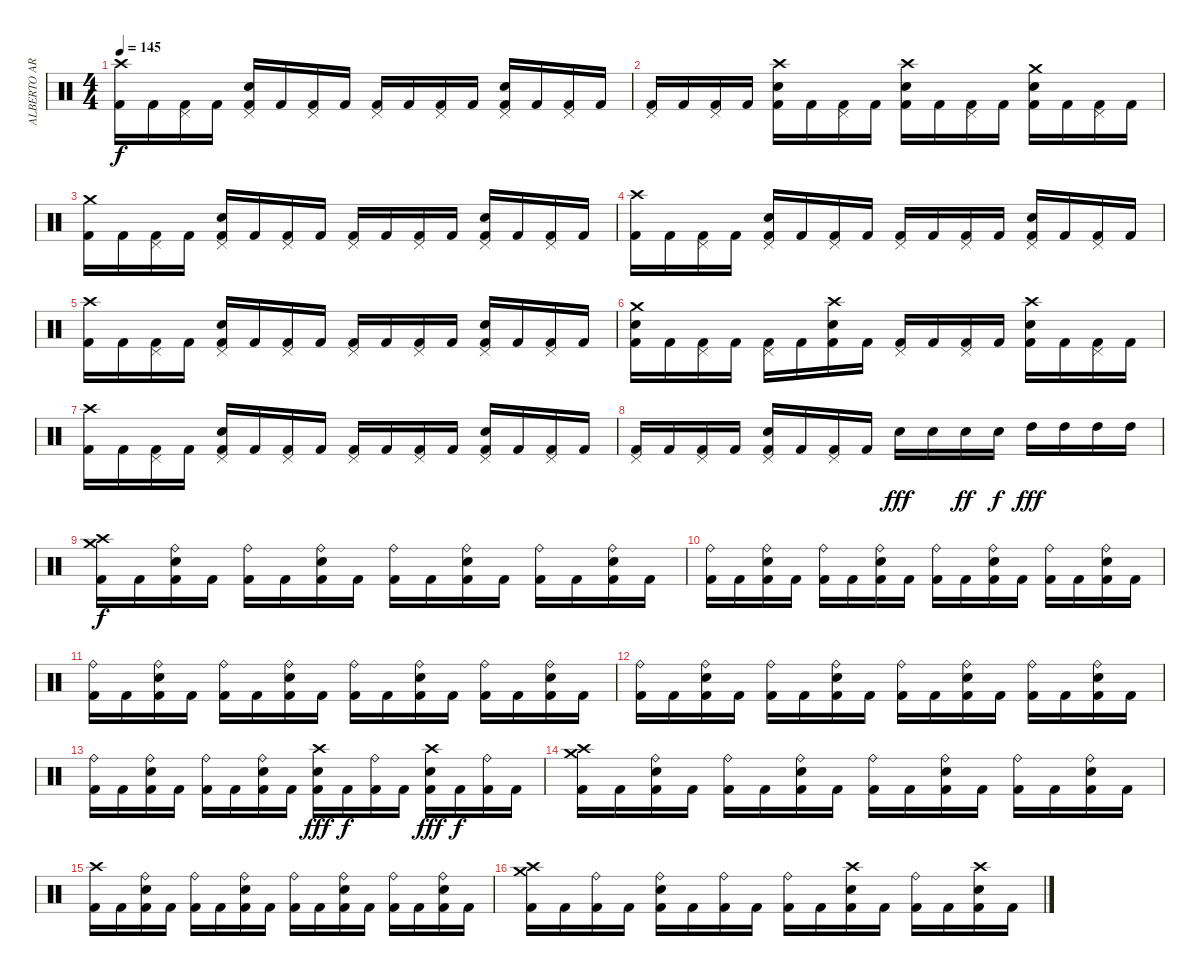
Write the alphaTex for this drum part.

\track ("ALBERTO ARDINES" "ALBERTO AR") {instrument percussion}
\staff {score}
\articulation defaults
\ts (4 4)
\tempo 145
\clef neutral
\ks c
("Crash high (hit)" "Kick (hit) 2").16{dy f} "Kick (hit) 2".16 ("Pedal Hi-Hat (hit)" "Kick (hit) 2").16 "Kick (hit) 2".16 ("Pedal Hi-Hat (hit)" "Electric Snare (hit)" "Kick (hit) 2").16 "Kick (hit) 2".16 ("Pedal Hi-Hat (hit)" "Kick (hit) 2").16 "Kick (hit) 2".16 ("Pedal Hi-Hat (hit)" "Kick (hit) 2").16 "Kick (hit) 2".16 ("Pedal Hi-Hat (hit)" "Kick (hit) 2").16 "Kick (hit) 2".16 ("Pedal Hi-Hat (hit)" "Electric Snare (hit)" "Kick (hit) 2").16 "Kick (hit) 2".16 ("Pedal Hi-Hat (hit)" "Kick (hit) 2").16 "Kick (hit) 2".16 |
("Pedal Hi-Hat (hit)" "Kick (hit) 2").16 "Kick (hit) 2".16 ("Pedal Hi-Hat (hit)" "Kick (hit) 2").16 "Kick (hit) 2".16 ("Crash high (hit)" "Electric Snare (hit)" "Kick (hit) 2").16 "Kick (hit) 2".16 ("Pedal Hi-Hat (hit)" "Kick (hit) 2").16 "Kick (hit) 2".16 ("Crash high (hit)" "Electric Snare (hit)" "Kick (hit) 2").16 "Kick (hit) 2".16 ("Pedal Hi-Hat (hit)" "Kick (hit) 2").16 "Kick (hit) 2".16 ("Crash medium (hit)" "Electric Snare (hit)" "Kick (hit) 2").16 "Kick (hit) 2".16 ("Pedal Hi-Hat (hit)" "Kick (hit) 2").16 "Kick (hit) 2".16 |
("Crash medium (hit)" "Kick (hit) 2").16 "Kick (hit) 2".16 ("Pedal Hi-Hat (hit)" "Kick (hit) 2").16 "Kick (hit) 2".16 ("Pedal Hi-Hat (hit)" "Electric Snare (hit)" "Kick (hit) 2").16 "Kick (hit) 2".16 ("Pedal Hi-Hat (hit)" "Kick (hit) 2").16 "Kick (hit) 2".16 ("Pedal Hi-Hat (hit)" "Kick (hit) 2").16 "Kick (hit) 2".16 ("Pedal Hi-Hat (hit)" "Kick (hit) 2").16 "Kick (hit) 2".16 ("Pedal Hi-Hat (hit)" "Electric Snare (hit)" "Kick (hit) 2").16 "Kick (hit) 2".16 ("Pedal Hi-Hat (hit)" "Kick (hit) 2").16 "Kick (hit) 2".16 |
("Crash high (hit)" "Kick (hit) 2").16 "Kick (hit) 2".16 ("Pedal Hi-Hat (hit)" "Kick (hit) 2").16 "Kick (hit) 2".16 ("Pedal Hi-Hat (hit)" "Electric Snare (hit)" "Kick (hit) 2").16 "Kick (hit) 2".16 ("Pedal Hi-Hat (hit)" "Kick (hit) 2").16 "Kick (hit) 2".16 ("Pedal Hi-Hat (hit)" "Kick (hit) 2").16 "Kick (hit) 2".16 ("Pedal Hi-Hat (hit)" "Kick (hit) 2").16 "Kick (hit) 2".16 ("Pedal Hi-Hat (hit)" "Electric Snare (hit)" "Kick (hit) 2").16 "Kick (hit) 2".16 ("Pedal Hi-Hat (hit)" "Kick (hit) 2").16 "Kick (hit) 2".16 |
("Crash high (hit)" "Kick (hit) 2").16 "Kick (hit) 2".16 ("Pedal Hi-Hat (hit)" "Kick (hit) 2").16 "Kick (hit) 2".16 ("Pedal Hi-Hat (hit)" "Electric Snare (hit)" "Kick (hit) 2").16 "Kick (hit) 2".16 ("Pedal Hi-Hat (hit)" "Kick (hit) 2").16 "Kick (hit) 2".16 ("Pedal Hi-Hat (hit)" "Kick (hit) 2").16 "Kick (hit) 2".16 ("Pedal Hi-Hat (hit)" "Kick (hit) 2").16 "Kick (hit) 2".16 ("Pedal Hi-Hat (hit)" "Electric Snare (hit)" "Kick (hit) 2").16 "Kick (hit) 2".16 ("Pedal Hi-Hat (hit)" "Kick (hit) 2").16 "Kick (hit) 2".16 |
("Crash medium (hit)" "Electric Snare (hit)" "Kick (hit) 2").16 "Kick (hit) 2".16 ("Pedal Hi-Hat (hit)" "Kick (hit) 2").16 "Kick (hit) 2".16 ("Pedal Hi-Hat (hit)" "Kick (hit) 2").16 "Kick (hit) 2".16 ("Crash high (hit)" "Electric Snare (hit)" "Kick (hit) 2").16 "Kick (hit) 2".16 ("Pedal Hi-Hat (hit)" "Kick (hit) 2").16 "Kick (hit) 2".16 ("Pedal Hi-Hat (hit)" "Kick (hit) 2").16 "Kick (hit) 2".16 ("Crash high (hit)" "Electric Snare (hit)" "Kick (hit) 2").16 "Kick (hit) 2".16 ("Pedal Hi-Hat (hit)" "Kick (hit) 2").16 "Kick (hit) 2".16 |
("Crash high (hit)" "Kick (hit) 2").16 "Kick (hit) 2".16 ("Pedal Hi-Hat (hit)" "Kick (hit) 2").16 "Kick (hit) 2".16 ("Pedal Hi-Hat (hit)" "Electric Snare (hit)" "Kick (hit) 2").16 "Kick (hit) 2".16 ("Pedal Hi-Hat (hit)" "Kick (hit) 2").16 "Kick (hit) 2".16 ("Pedal Hi-Hat (hit)" "Kick (hit) 2").16 "Kick (hit) 2".16 ("Pedal Hi-Hat (hit)" "Kick (hit) 2").16 "Kick (hit) 2".16 ("Pedal Hi-Hat (hit)" "Electric Snare (hit)" "Kick (hit) 2").16 "Kick (hit) 2".16 ("Pedal Hi-Hat (hit)" "Kick (hit) 2").16 "Kick (hit) 2".16 |
("Pedal Hi-Hat (hit)" "Kick (hit) 2").16 "Kick (hit) 2".16 ("Pedal Hi-Hat (hit)" "Kick (hit) 2").16 "Kick (hit) 2".16 ("Pedal Hi-Hat (hit)" "Electric Snare (hit)" "Kick (hit) 2").16 "Kick (hit) 2".16 ("Pedal Hi-Hat (hit)" "Kick (hit) 2").16 "Kick (hit) 2".16 "Electric Snare (hit)".16{dy fff} "Electric Snare (hit)".16 "Electric Snare (hit)".16{dy ff} "Electric Snare (hit)".16{dy f} "High Tom (hit)".16{dy fff} "High Tom (hit)".16 "High Tom (hit)".16 "High Tom (hit)".16 |
("Crash high (hit)" "Crash medium (hit)" "Kick (hit) 2").16{dy f} "Kick (hit) 2".16 ("Ride (bell)" "Electric Snare (hit)" "Kick (hit) 2").16 "Kick (hit) 2".16 ("Ride (bell)" "Kick (hit) 2").16 "Kick (hit) 2".16 ("Ride (bell)" "Electric Snare (hit)" "Kick (hit) 2").16 "Kick (hit) 2".16 ("Ride (bell)" "Kick (hit) 2").16 "Kick (hit) 2".16 ("Ride (bell)" "Electric Snare (hit)" "Kick (hit) 2").16 "Kick (hit) 2".16 ("Ride (bell)" "Kick (hit) 2").16 "Kick (hit) 2".16 ("Ride (bell)" "Electric Snare (hit)" "Kick (hit) 2").16 "Kick (hit) 2".16 |
("Ride (bell)" "Kick (hit) 2").16 "Kick (hit) 2".16 ("Ride (bell)" "Electric Snare (hit)" "Kick (hit) 2").16 "Kick (hit) 2".16 ("Ride (bell)" "Kick (hit) 2").16 "Kick (hit) 2".16 ("Ride (bell)" "Electric Snare (hit)" "Kick (hit) 2").16 "Kick (hit) 2".16 ("Ride (bell)" "Kick (hit) 2").16 "Kick (hit) 2".16 ("Ride (bell)" "Electric Snare (hit)" "Kick (hit) 2").16 "Kick (hit) 2".16 ("Ride (bell)" "Kick (hit) 2").16 "Kick (hit) 2".16 ("Ride (bell)" "Electric Snare (hit)" "Kick (hit) 2").16 "Kick (hit) 2".16 |
("Ride (bell)" "Kick (hit) 2").16 "Kick (hit) 2".16 ("Ride (bell)" "Electric Snare (hit)" "Kick (hit) 2").16 "Kick (hit) 2".16 ("Ride (bell)" "Kick (hit) 2").16 "Kick (hit) 2".16 ("Ride (bell)" "Electric Snare (hit)" "Kick (hit) 2").16 "Kick (hit) 2".16 ("Ride (bell)" "Kick (hit) 2").16 "Kick (hit) 2".16 ("Ride (bell)" "Electric Snare (hit)" "Kick (hit) 2").16 "Kick (hit) 2".16 ("Ride (bell)" "Kick (hit) 2").16 "Kick (hit) 2".16 ("Ride (bell)" "Electric Snare (hit)" "Kick (hit) 2").16 "Kick (hit) 2".16 |
("Ride (bell)" "Kick (hit) 2").16 "Kick (hit) 2".16 ("Ride (bell)" "Electric Snare (hit)" "Kick (hit) 2").16 "Kick (hit) 2".16 ("Ride (bell)" "Kick (hit) 2").16 "Kick (hit) 2".16 ("Ride (bell)" "Electric Snare (hit)" "Kick (hit) 2").16 "Kick (hit) 2".16 ("Ride (bell)" "Kick (hit) 2").16 "Kick (hit) 2".16 ("Ride (bell)" "Electric Snare (hit)" "Kick (hit) 2").16 "Kick (hit) 2".16 ("Ride (bell)" "Kick (hit) 2").16 "Kick (hit) 2".16 ("Ride (bell)" "Electric Snare (hit)" "Kick (hit) 2").16 "Kick (hit) 2".16 |
("Ride (bell)" "Kick (hit) 2").16 "Kick (hit) 2".16 ("Ride (bell)" "Electric Snare (hit)" "Kick (hit) 2").16 "Kick (hit) 2".16 ("Ride (bell)" "Kick (hit) 2").16 "Kick (hit) 2".16 ("Ride (bell)" "Electric Snare (hit)" "Kick (hit) 2").16 "Kick (hit) 2".16 ("Crash high (hit)" "Electric Snare (hit)" "Kick (hit) 2").16{dy fff} "Kick (hit) 2".16{dy f} ("Ride (bell)" "Kick (hit) 2").16 "Kick (hit) 2".16 ("Crash high (hit)" "Electric Snare (hit)" "Kick (hit) 2").16{dy fff} "Kick (hit) 2".16{dy f} ("Ride (bell)" "Kick (hit) 2").16 "Kick (hit) 2".16 |
("Crash high (hit)" "Crash medium (hit)" "Kick (hit) 2").16 "Kick (hit) 2".16 ("Ride (bell)" "Electric Snare (hit)" "Kick (hit) 2").16 "Kick (hit) 2".16 ("Ride (bell)" "Kick (hit) 2").16 "Kick (hit) 2".16 ("Ride (bell)" "Electric Snare (hit)" "Kick (hit) 2").16 "Kick (hit) 2".16 ("Ride (bell)" "Kick (hit) 2").16 "Kick (hit) 2".16 ("Ride (bell)" "Electric Snare (hit)" "Kick (hit) 2").16 "Kick (hit) 2".16 ("Ride (bell)" "Kick (hit) 2").16 "Kick (hit) 2".16 ("Ride (bell)" "Electric Snare (hit)" "Kick (hit) 2").16 "Kick (hit) 2".16 |
("Crash high (hit)" "Kick (hit) 2").16 "Kick (hit) 2".16 ("Ride (bell)" "Electric Snare (hit)" "Kick (hit) 2").16 "Kick (hit) 2".16 ("Ride (bell)" "Kick (hit) 2").16 "Kick (hit) 2".16 ("Ride (bell)" "Electric Snare (hit)" "Kick (hit) 2").16 "Kick (hit) 2".16 ("Ride (bell)" "Kick (hit) 2").16 "Kick (hit) 2".16 ("Ride (bell)" "Electric Snare (hit)" "Kick (hit) 2").16 "Kick (hit) 2".16 ("Ride (bell)" "Kick (hit) 2").16 "Kick (hit) 2".16 ("Ride (bell)" "Electric Snare (hit)" "Kick (hit) 2").16 "Kick (hit) 2".16 |
("Crash high (hit)" "Crash medium (hit)" "Kick (hit) 2").16 "Kick (hit) 2".16 ("Ride (bell)" "Kick (hit) 2").16 "Kick (hit) 2".16 ("Ride (bell)" "Electric Snare (hit)" "Kick (hit) 2").16 "Kick (hit) 2".16 ("Ride (bell)" "Kick (hit) 2").16 "Kick (hit) 2".16 ("Ride (bell)" "Kick (hit) 2").16 "Kick (hit) 2".16 ("Crash high (hit)" "Electric Snare (hit)" "Kick (hit) 2").16 "Kick (hit) 2".16 ("Ride (bell)" "Kick (hit) 2").16 "Kick (hit) 2".16 ("Crash high (hit)" "Electric Snare (hit)" "Kick (hit) 2").16 "Kick (hit) 2".16
